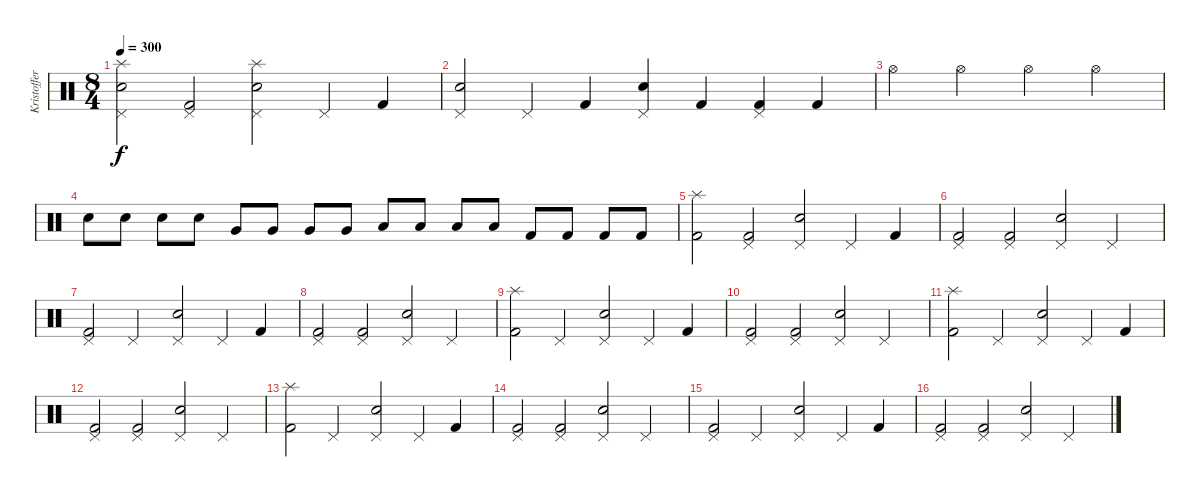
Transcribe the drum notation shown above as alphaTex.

\track ("Kristoffer Söderström" "Kristoffer") {instrument percussion}
\staff {score}
\articulation defaults
\ts (8 4)
\tempo 300
\clef neutral
\ks c
("Splash (hit)" "Snare (hit) 2" "Pedal Hi-Hat (hit)").2{dy f} ("Pedal Hi-Hat (hit)" "Kick (hit) 2").2 ("Splash (hit)" "Snare (hit) 2" "Pedal Hi-Hat (hit)").2 "Pedal Hi-Hat (hit)".4 "Kick (hit) 2".4 |
("Snare (hit) 2" "Pedal Hi-Hat (hit)").2 "Pedal Hi-Hat (hit)".4 "Kick (hit) 2".4 ("Snare (hit) 2" "Pedal Hi-Hat (hit)").4 "Kick (hit) 2".4 ("Pedal Hi-Hat (hit)" "Kick (hit) 2").4 "Kick (hit) 2".4 |
"Hi-Hat (open)".2 "Hi-Hat (open)".2 "Hi-Hat (open)".2 "Hi-Hat (open)".2 |
"Snare (hit) 2".8 "Snare (hit) 2".8 "Snare (hit) 2".8 "Snare (hit) 2".8 "Very Low Tom (hit)".8 "Very Low Tom (hit)".8 "Very Low Tom (hit)".8 "Very Low Tom (hit)".8 "Low Floor Tom (hit)".8 "Low Floor Tom (hit)".8 "Low Floor Tom (hit)".8 "Low Floor Tom (hit)".8 "Kick (hit) 2".8 "Kick (hit) 2".8 "Kick (hit) 2".8 "Kick (hit) 2".8 |
("Splash (hit)" "Kick (hit) 2").2 ("Pedal Hi-Hat (hit)" "Kick (hit) 2").2 ("Snare (hit) 2" "Pedal Hi-Hat (hit)").2 "Pedal Hi-Hat (hit)".4 "Kick (hit) 2".4 |
("Pedal Hi-Hat (hit)" "Kick (hit) 2").2 ("Pedal Hi-Hat (hit)" "Kick (hit) 2").2 ("Snare (hit) 2" "Pedal Hi-Hat (hit)").2 "Pedal Hi-Hat (hit)".2 |
("Pedal Hi-Hat (hit)" "Kick (hit) 2").2 "Pedal Hi-Hat (hit)".2 ("Snare (hit) 2" "Pedal Hi-Hat (hit)").2 "Pedal Hi-Hat (hit)".4 "Kick (hit) 2".4 |
("Pedal Hi-Hat (hit)" "Kick (hit) 2").2 ("Pedal Hi-Hat (hit)" "Kick (hit) 2").2 ("Snare (hit) 2" "Pedal Hi-Hat (hit)").2 "Pedal Hi-Hat (hit)".2 |
("Splash (hit)" "Kick (hit) 2").2 "Pedal Hi-Hat (hit)".2 ("Snare (hit) 2" "Pedal Hi-Hat (hit)").2 "Pedal Hi-Hat (hit)".4 "Kick (hit) 2".4 |
("Pedal Hi-Hat (hit)" "Kick (hit) 2").2 ("Pedal Hi-Hat (hit)" "Kick (hit) 2").2 ("Snare (hit) 2" "Pedal Hi-Hat (hit)").2 "Pedal Hi-Hat (hit)".2 |
("Splash (hit)" "Kick (hit) 2").2 "Pedal Hi-Hat (hit)".2 ("Snare (hit) 2" "Pedal Hi-Hat (hit)").2 "Pedal Hi-Hat (hit)".4 "Kick (hit) 2".4 |
("Pedal Hi-Hat (hit)" "Kick (hit) 2").2 ("Pedal Hi-Hat (hit)" "Kick (hit) 2").2 ("Snare (hit) 2" "Pedal Hi-Hat (hit)").2 "Pedal Hi-Hat (hit)".2 |
("Splash (hit)" "Kick (hit) 2").2 "Pedal Hi-Hat (hit)".2 ("Snare (hit) 2" "Pedal Hi-Hat (hit)").2 "Pedal Hi-Hat (hit)".4 "Kick (hit) 2".4 |
("Pedal Hi-Hat (hit)" "Kick (hit) 2").2 ("Pedal Hi-Hat (hit)" "Kick (hit) 2").2 ("Snare (hit) 2" "Pedal Hi-Hat (hit)").2 "Pedal Hi-Hat (hit)".2 |
("Pedal Hi-Hat (hit)" "Kick (hit) 2").2 "Pedal Hi-Hat (hit)".2 ("Snare (hit) 2" "Pedal Hi-Hat (hit)").2 "Pedal Hi-Hat (hit)".4 "Kick (hit) 2".4 |
("Pedal Hi-Hat (hit)" "Kick (hit) 2").2 ("Pedal Hi-Hat (hit)" "Kick (hit) 2").2 ("Snare (hit) 2" "Pedal Hi-Hat (hit)").2 "Pedal Hi-Hat (hit)".2
